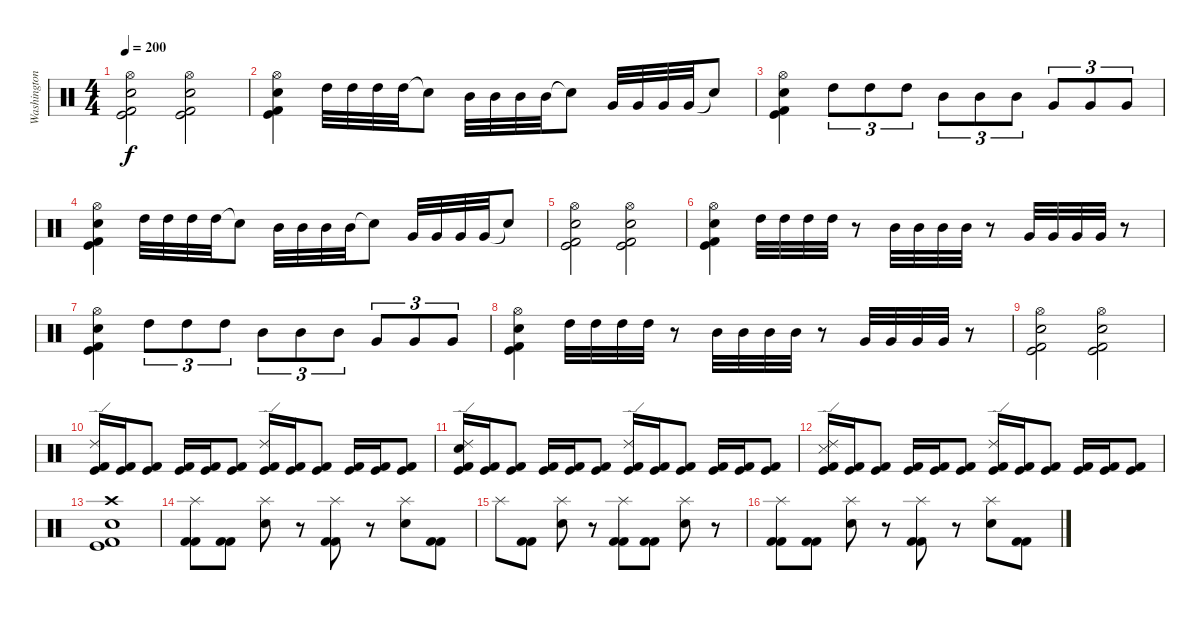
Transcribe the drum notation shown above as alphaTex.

\track ("Washington" "Washington") {solo instrument percussion}
\staff {score}
\articulation defaults
\ts (4 4)
\tempo 200
\clef neutral
\ks c
("Hi-Hat (open)" "Snare (hit) 2" "Kick (hit)" "Kick (hit) 2").2{dy f} ("Hi-Hat (open)" "Snare (hit) 2" "Kick (hit)" "Kick (hit) 2").2 |
("Hi-Hat (open)" "Snare (hit) 2" "Kick (hit)" "Kick (hit) 2").4 "High Tom (hit)".32 "High Tom (hit)".32 "High Tom (hit)".32 "High Tom (hit)".32 "Snare (hit)"{t}.8 "Mid Tom (hit)".32 "Mid Tom (hit)".32 "Mid Tom (hit)".32 "Mid Tom (hit)".32 "Snare (hit)"{t}.8 "Very Low Tom (hit)".32 "Very Low Tom (hit)".32 "Very Low Tom (hit)".32 "Very Low Tom (hit)".32 "Snare (hit)"{t}.8 |
("Hi-Hat (open)" "Snare (hit) 2" "Kick (hit)" "Kick (hit) 2").4 "High Tom (hit)".8{tu (3 2)} "High Tom (hit)".8{tu (3 2)} "High Tom (hit)".8{tu (3 2)} "Mid Tom (hit)".8{tu (3 2)} "Mid Tom (hit)".8{tu (3 2)} "Mid Tom (hit)".8{tu (3 2)} "Very Low Tom (hit)".8{tu (3 2)} "Very Low Tom (hit)".8{tu (3 2)} "Very Low Tom (hit)".8{tu (3 2)} |
("Hi-Hat (open)" "Snare (hit) 2" "Kick (hit)" "Kick (hit) 2").4 "High Tom (hit)".32 "High Tom (hit)".32 "High Tom (hit)".32 "High Tom (hit)".32 "Snare (hit)"{t}.8 "Mid Tom (hit)".32 "Mid Tom (hit)".32 "Mid Tom (hit)".32 "Mid Tom (hit)".32 "Snare (hit)"{t}.8 "Very Low Tom (hit)".32 "Very Low Tom (hit)".32 "Very Low Tom (hit)".32 "Very Low Tom (hit)".32 "Snare (hit)"{t}.8 |
("Hi-Hat (open)" "Snare (hit) 2" "Kick (hit)" "Kick (hit) 2").2 ("Hi-Hat (open)" "Snare (hit) 2" "Kick (hit)" "Kick (hit) 2").2 |
("Hi-Hat (open)" "Snare (hit) 2" "Kick (hit)" "Kick (hit) 2").4 "High Tom (hit)".32 "High Tom (hit)".32 "High Tom (hit)".32 "High Tom (hit)".32 r.8 "Mid Tom (hit)".32 "Mid Tom (hit)".32 "Mid Tom (hit)".32 "Mid Tom (hit)".32 r.8 "Very Low Tom (hit)".32 "Very Low Tom (hit)".32 "Very Low Tom (hit)".32 "Very Low Tom (hit)".32 r.8 |
("Hi-Hat (open)" "Snare (hit) 2" "Kick (hit)" "Kick (hit) 2").4 "High Tom (hit)".8{tu (3 2)} "High Tom (hit)".8{tu (3 2)} "High Tom (hit)".8{tu (3 2)} "Mid Tom (hit)".8{tu (3 2)} "Mid Tom (hit)".8{tu (3 2)} "Mid Tom (hit)".8{tu (3 2)} "Very Low Tom (hit)".8{tu (3 2)} "Very Low Tom (hit)".8{tu (3 2)} "Very Low Tom (hit)".8{tu (3 2)} |
("Hi-Hat (open)" "Snare (hit) 2" "Kick (hit)" "Kick (hit) 2").4 "High Tom (hit)".32 "High Tom (hit)".32 "High Tom (hit)".32 "High Tom (hit)".32 r.8 "Mid Tom (hit)".32 "Mid Tom (hit)".32 "Mid Tom (hit)".32 "Mid Tom (hit)".32 r.8 "Very Low Tom (hit)".32 "Very Low Tom (hit)".32 "Very Low Tom (hit)".32 "Very Low Tom (hit)".32 r.8 |
("Hi-Hat (open)" "Snare (hit) 2" "Kick (hit)" "Kick (hit) 2").2 ("Hi-Hat (open)" "Snare (hit) 2" "Kick (hit)" "Kick (hit) 2").2 |
("Ride (edge) 2" "Kick (hit) 2" "Kick (hit)").16 ("Kick (hit) 2" "Kick (hit)").16 ("Kick (hit) 2" "Kick (hit)").8 ("Kick (hit) 2" "Kick (hit)").16 ("Kick (hit) 2" "Kick (hit)").16 ("Kick (hit) 2" "Kick (hit)").8 ("Ride (edge) 2" "Kick (hit) 2" "Kick (hit)").16 ("Kick (hit) 2" "Kick (hit)").16 ("Kick (hit) 2" "Kick (hit)").8 ("Kick (hit) 2" "Kick (hit)").16 ("Kick (hit) 2" "Kick (hit)").16 ("Kick (hit) 2" "Kick (hit)").8 |
("Ride (edge) 2" "Snare (hit) 2" "Kick (hit) 2" "Kick (hit)").16 ("Kick (hit) 2" "Kick (hit)").16 ("Kick (hit) 2" "Kick (hit)").8 ("Kick (hit) 2" "Kick (hit)").16 ("Kick (hit) 2" "Kick (hit)").16 ("Kick (hit) 2" "Kick (hit)").8 ("Ride (edge) 2" "Kick (hit) 2" "Kick (hit)").16 ("Kick (hit) 2" "Kick (hit)").16 ("Kick (hit) 2" "Kick (hit)").8 ("Kick (hit) 2" "Kick (hit)").16 ("Kick (hit) 2" "Kick (hit)").16 ("Kick (hit) 2" "Kick (hit)").8 |
("Ride (edge) 2" "Snare (side stick) 3" "Kick (hit) 2" "Kick (hit)").16 ("Kick (hit) 2" "Kick (hit)").16 ("Kick (hit) 2" "Kick (hit)").8 ("Kick (hit) 2" "Kick (hit)").16 ("Kick (hit) 2" "Kick (hit)").16 ("Kick (hit) 2" "Kick (hit)").8 ("Ride (edge) 2" "Kick (hit) 2" "Kick (hit)").16 ("Kick (hit) 2" "Kick (hit)").16 ("Kick (hit) 2" "Kick (hit)").8 ("Kick (hit) 2" "Kick (hit)").16 ("Kick (hit) 2" "Kick (hit)").16 ("Kick (hit) 2" "Kick (hit)").8 |
("Snare (hit) 2" "Crash high (hit)" "Kick (hit)" "Kick (hit) 2").1 |
("Splash (hit)" "Kick (hit) 2" "Kick (hit) 2").8 ("Kick (hit) 2" "Kick (hit) 2").8 ("Splash (hit)" "Electric Snare (hit)").8 r.8 ("Splash (hit)" "Kick (hit) 2" "Kick (hit) 2").8 r.8 ("Splash (hit)" "Electric Snare (hit)").8 ("Kick (hit) 2" "Kick (hit) 2").8 |
"Splash (hit)".8 ("Kick (hit) 2" "Kick (hit) 2").8 ("Splash (hit)" "Electric Snare (hit)").8 r.8 ("Splash (hit)" "Kick (hit) 2" "Kick (hit) 2").8 ("Kick (hit) 2" "Kick (hit) 2").8 ("Splash (hit)" "Electric Snare (hit)").8 r.8 |
("Splash (hit)" "Kick (hit) 2" "Kick (hit) 2").8 ("Kick (hit) 2" "Kick (hit) 2").8 ("Splash (hit)" "Electric Snare (hit)").8 r.8 ("Splash (hit)" "Kick (hit) 2" "Kick (hit) 2").8 r.8 ("Splash (hit)" "Electric Snare (hit)").8 ("Kick (hit) 2" "Kick (hit) 2").8
